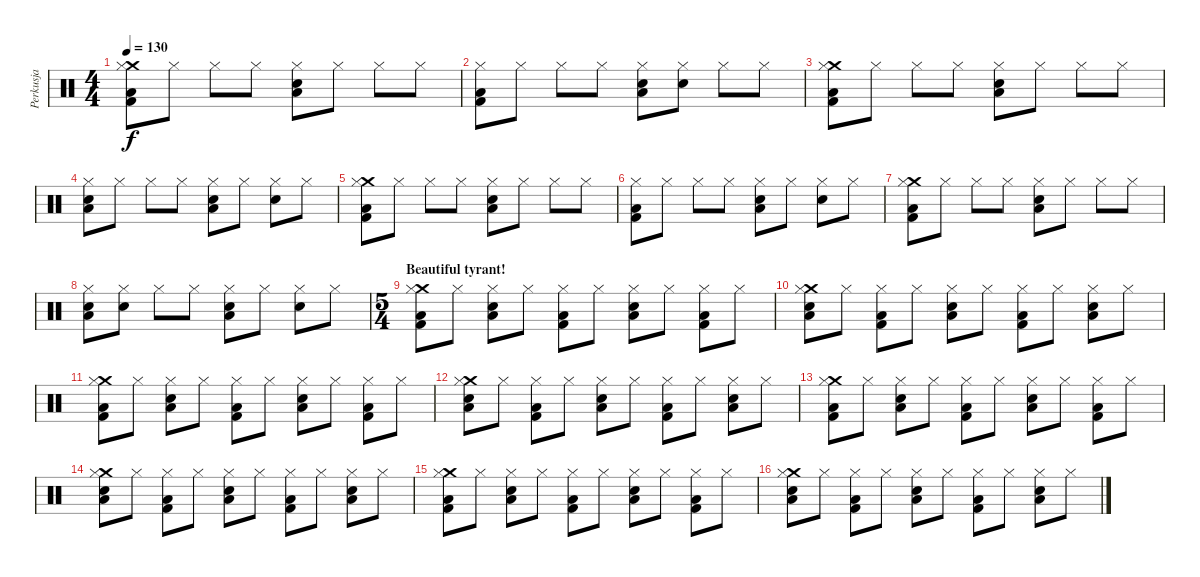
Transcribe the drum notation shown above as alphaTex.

\track ("Perkusja" "Perkusja") {instrument percussion}
\staff {score}
\articulation defaults
\ts (4 4)
\tempo 130
\clef neutral
\ks c
("Crash medium (hit)" "Kick (hit) 2" "Hi-Hat (closed)" "Low Tom (hit)").8{dy f} "Hi-Hat (closed)".8 "Hi-Hat (closed)".8 "Hi-Hat (closed)".8 ("Snare (hit) 2" "Hi-Hat (closed)" "Low Tom (hit)").8 "Hi-Hat (closed)".8 "Hi-Hat (closed)".8 "Hi-Hat (closed)".8 |
("Kick (hit) 2" "Hi-Hat (closed)" "Low Tom (hit)").8 "Hi-Hat (closed)".8 "Hi-Hat (closed)".8 "Hi-Hat (closed)".8 ("Snare (hit) 2" "Hi-Hat (closed)" "Low Tom (hit)").8 ("Snare (hit) 2" "Hi-Hat (closed)").8 "Hi-Hat (closed)".8 "Hi-Hat (closed)".8 |
("Crash medium (hit)" "Kick (hit) 2" "Hi-Hat (closed)" "Low Tom (hit)").8 "Hi-Hat (closed)".8 "Hi-Hat (closed)".8 "Hi-Hat (closed)".8 ("Snare (hit) 2" "Hi-Hat (closed)" "Low Tom (hit)").8 "Hi-Hat (closed)".8 "Hi-Hat (closed)".8 "Hi-Hat (closed)".8 |
("Snare (hit) 2" "Hi-Hat (closed)" "Low Tom (hit)").8 "Hi-Hat (closed)".8 "Hi-Hat (closed)".8 "Hi-Hat (closed)".8 ("Snare (hit) 2" "Hi-Hat (closed)" "Low Tom (hit)").8 "Hi-Hat (closed)".8 ("Snare (hit) 2" "Hi-Hat (closed)").8 "Hi-Hat (closed)".8 |
("Crash medium (hit)" "Kick (hit) 2" "Hi-Hat (closed)" "Low Tom (hit)").8 "Hi-Hat (closed)".8 "Hi-Hat (closed)".8 "Hi-Hat (closed)".8 ("Snare (hit) 2" "Hi-Hat (closed)" "Low Tom (hit)").8 "Hi-Hat (closed)".8 "Hi-Hat (closed)".8 "Hi-Hat (closed)".8 |
("Kick (hit) 2" "Hi-Hat (closed)" "Low Tom (hit)").8 "Hi-Hat (closed)".8 "Hi-Hat (closed)".8 "Hi-Hat (closed)".8 ("Snare (hit) 2" "Hi-Hat (closed)" "Low Tom (hit)").8 "Hi-Hat (closed)".8 ("Snare (hit) 2" "Hi-Hat (closed)").8 "Hi-Hat (closed)".8 |
("Crash medium (hit)" "Kick (hit) 2" "Hi-Hat (closed)" "Low Tom (hit)").8 "Hi-Hat (closed)".8 "Hi-Hat (closed)".8 "Hi-Hat (closed)".8 ("Snare (hit) 2" "Hi-Hat (closed)" "Low Tom (hit)").8 "Hi-Hat (closed)".8 "Hi-Hat (closed)".8 "Hi-Hat (closed)".8 |
("Snare (hit) 2" "Hi-Hat (closed)" "Low Tom (hit)").8 ("Snare (hit) 2" "Hi-Hat (closed)").8 "Hi-Hat (closed)".8 "Hi-Hat (closed)".8 ("Snare (hit) 2" "Hi-Hat (closed)" "Low Tom (hit)").8 "Hi-Hat (closed)".8 ("Snare (hit) 2" "Hi-Hat (closed)").8 "Hi-Hat (closed)".8 |
\ts (5 4)
\section ("" "Beautiful tyrant!")
("Crash medium (hit)" "Kick (hit) 2" "Hi-Hat (closed)" "Low Tom (hit)").8 "Hi-Hat (closed)".8 ("Snare (hit) 2" "Hi-Hat (closed)" "Low Tom (hit)").8 "Hi-Hat (closed)".8 ("Kick (hit) 2" "Hi-Hat (closed)" "Low Tom (hit)").8 "Hi-Hat (closed)".8 ("Snare (hit) 2" "Hi-Hat (closed)" "Low Tom (hit)").8 "Hi-Hat (closed)".8 ("Kick (hit) 2" "Hi-Hat (closed)" "Low Tom (hit)").8 "Hi-Hat (closed)".8 |
("Crash medium (hit)" "Snare (hit) 2" "Hi-Hat (closed)" "Low Tom (hit)").8 "Hi-Hat (closed)".8 ("Kick (hit) 2" "Hi-Hat (closed)" "Low Tom (hit)").8 "Hi-Hat (closed)".8 ("Snare (hit) 2" "Hi-Hat (closed)" "Low Tom (hit)").8 "Hi-Hat (closed)".8 ("Kick (hit) 2" "Hi-Hat (closed)" "Low Tom (hit)").8 "Hi-Hat (closed)".8 ("Snare (hit) 2" "Hi-Hat (closed)" "Low Tom (hit)").8 "Hi-Hat (closed)".8 |
("Crash medium (hit)" "Kick (hit) 2" "Hi-Hat (closed)" "Low Tom (hit)").8 "Hi-Hat (closed)".8 ("Snare (hit) 2" "Hi-Hat (closed)" "Low Tom (hit)").8 "Hi-Hat (closed)".8 ("Kick (hit) 2" "Hi-Hat (closed)" "Low Tom (hit)").8 "Hi-Hat (closed)".8 ("Snare (hit) 2" "Hi-Hat (closed)" "Low Tom (hit)").8 "Hi-Hat (closed)".8 ("Kick (hit) 2" "Hi-Hat (closed)" "Low Tom (hit)").8 "Hi-Hat (closed)".8 |
("Crash medium (hit)" "Snare (hit) 2" "Hi-Hat (closed)" "Low Tom (hit)").8 "Hi-Hat (closed)".8 ("Kick (hit) 2" "Hi-Hat (closed)" "Low Tom (hit)").8 "Hi-Hat (closed)".8 ("Snare (hit) 2" "Hi-Hat (closed)" "Low Tom (hit)").8 "Hi-Hat (closed)".8 ("Kick (hit) 2" "Hi-Hat (closed)" "Low Tom (hit)").8 "Hi-Hat (closed)".8 ("Snare (hit) 2" "Hi-Hat (closed)" "Low Tom (hit)").8 "Hi-Hat (closed)".8 |
("Crash medium (hit)" "Kick (hit) 2" "Hi-Hat (closed)" "Low Tom (hit)").8 "Hi-Hat (closed)".8 ("Snare (hit) 2" "Hi-Hat (closed)" "Low Tom (hit)").8 "Hi-Hat (closed)".8 ("Kick (hit) 2" "Hi-Hat (closed)" "Low Tom (hit)").8 "Hi-Hat (closed)".8 ("Snare (hit) 2" "Hi-Hat (closed)" "Low Tom (hit)").8 "Hi-Hat (closed)".8 ("Kick (hit) 2" "Hi-Hat (closed)" "Low Tom (hit)").8 "Hi-Hat (closed)".8 |
("Crash medium (hit)" "Snare (hit) 2" "Hi-Hat (closed)" "Low Tom (hit)").8 "Hi-Hat (closed)".8 ("Kick (hit) 2" "Hi-Hat (closed)" "Low Tom (hit)").8 "Hi-Hat (closed)".8 ("Snare (hit) 2" "Hi-Hat (closed)" "Low Tom (hit)").8 "Hi-Hat (closed)".8 ("Kick (hit) 2" "Hi-Hat (closed)" "Low Tom (hit)").8 "Hi-Hat (closed)".8 ("Snare (hit) 2" "Hi-Hat (closed)" "Low Tom (hit)").8 "Hi-Hat (closed)".8 |
("Crash medium (hit)" "Kick (hit) 2" "Hi-Hat (closed)" "Low Tom (hit)").8 "Hi-Hat (closed)".8 ("Snare (hit) 2" "Hi-Hat (closed)" "Low Tom (hit)").8 "Hi-Hat (closed)".8 ("Kick (hit) 2" "Hi-Hat (closed)" "Low Tom (hit)").8 "Hi-Hat (closed)".8 ("Snare (hit) 2" "Hi-Hat (closed)" "Low Tom (hit)").8 "Hi-Hat (closed)".8 ("Kick (hit) 2" "Hi-Hat (closed)" "Low Tom (hit)").8 "Hi-Hat (closed)".8 |
("Crash medium (hit)" "Snare (hit) 2" "Hi-Hat (closed)" "Low Tom (hit)").8 "Hi-Hat (closed)".8 ("Kick (hit) 2" "Hi-Hat (closed)" "Low Tom (hit)").8 "Hi-Hat (closed)".8 ("Snare (hit) 2" "Hi-Hat (closed)" "Low Tom (hit)").8 "Hi-Hat (closed)".8 ("Kick (hit) 2" "Hi-Hat (closed)" "Low Tom (hit)").8 "Hi-Hat (closed)".8 ("Snare (hit) 2" "Hi-Hat (closed)" "Low Tom (hit)").8 "Hi-Hat (closed)".8
